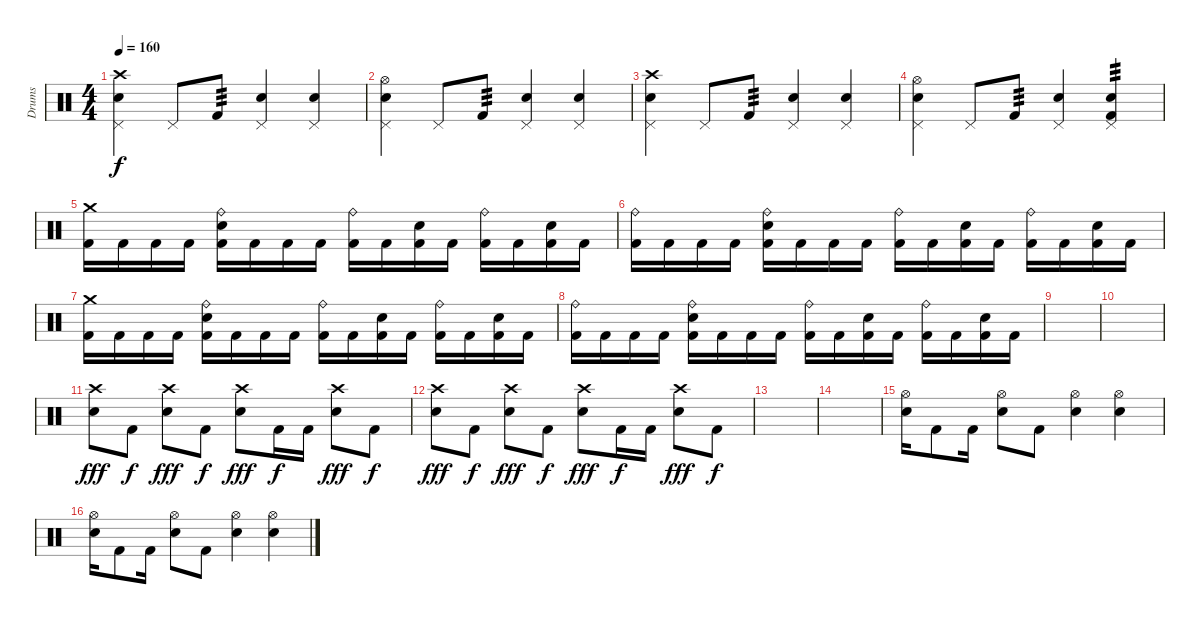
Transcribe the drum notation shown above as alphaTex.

\track ("Drums" "Drums") {instrument percussion}
\staff {score}
\articulation defaults
\ts (4 4)
\tempo 160
\clef neutral
\ks c
("Crash high (hit)" "Pedal Hi-Hat (hit)" "Snare (hit) 2").4{dy f} "Pedal Hi-Hat (hit)".8 "Kick (hit) 2".8{tp 3} ("Pedal Hi-Hat (hit)" "Snare (hit) 2").4 ("Pedal Hi-Hat (hit)" "Snare (hit) 2").4 |
("Hi-Hat (open)" "Pedal Hi-Hat (hit)" "Snare (hit) 2").4 "Pedal Hi-Hat (hit)".8 "Kick (hit) 2".8{tp 3} ("Pedal Hi-Hat (hit)" "Snare (hit) 2").4 ("Pedal Hi-Hat (hit)" "Snare (hit) 2").4 |
("Crash high (hit)" "Pedal Hi-Hat (hit)" "Snare (hit) 2").4 "Pedal Hi-Hat (hit)".8 "Kick (hit) 2".8{tp 3} ("Pedal Hi-Hat (hit)" "Snare (hit) 2").4 ("Pedal Hi-Hat (hit)" "Snare (hit) 2").4 |
("Hi-Hat (open)" "Pedal Hi-Hat (hit)" "Snare (hit) 2").4 "Pedal Hi-Hat (hit)".8 "Kick (hit) 2".8{tp 3} ("Pedal Hi-Hat (hit)" "Snare (hit) 2").4 ("Pedal Hi-Hat (hit)" "Kick (hit) 2" "Snare (hit) 2").4{tp 3} |
("Crash medium (hit)" "Kick (hit) 2").16 "Kick (hit) 2".16 "Kick (hit) 2".16 "Kick (hit) 2".16 ("Ride (bell)" "Snare (hit) 2" "Kick (hit) 2").16 "Kick (hit) 2".16 "Kick (hit) 2".16 "Kick (hit) 2".16 ("Ride (bell)" "Kick (hit) 2").16 "Kick (hit) 2".16 ("Snare (hit) 2" "Kick (hit) 2").16 "Kick (hit) 2".16 ("Ride (bell)" "Kick (hit) 2").16 "Kick (hit) 2".16 ("Snare (hit) 2" "Kick (hit) 2").16 "Kick (hit) 2".16 |
("Ride (bell)" "Kick (hit) 2").16 "Kick (hit) 2".16 "Kick (hit) 2".16 "Kick (hit) 2".16 ("Ride (bell)" "Snare (hit) 2" "Kick (hit) 2").16 "Kick (hit) 2".16 "Kick (hit) 2".16 "Kick (hit) 2".16 ("Ride (bell)" "Kick (hit) 2").16 "Kick (hit) 2".16 ("Snare (hit) 2" "Kick (hit) 2").16 "Kick (hit) 2".16 ("Ride (bell)" "Kick (hit) 2").16 "Kick (hit) 2".16 ("Snare (hit) 2" "Kick (hit) 2").16 "Kick (hit) 2".16 |
("Crash medium (hit)" "Kick (hit) 2").16 "Kick (hit) 2".16 "Kick (hit) 2".16 "Kick (hit) 2".16 ("Ride (bell)" "Snare (hit) 2" "Kick (hit) 2").16 "Kick (hit) 2".16 "Kick (hit) 2".16 "Kick (hit) 2".16 ("Ride (bell)" "Kick (hit) 2").16 "Kick (hit) 2".16 ("Snare (hit) 2" "Kick (hit) 2").16 "Kick (hit) 2".16 ("Ride (bell)" "Kick (hit) 2").16 "Kick (hit) 2".16 ("Snare (hit) 2" "Kick (hit) 2").16 "Kick (hit) 2".16 |
("Ride (bell)" "Kick (hit) 2").16 "Kick (hit) 2".16 "Kick (hit) 2".16 "Kick (hit) 2".16 ("Ride (bell)" "Snare (hit) 2" "Kick (hit) 2").16 "Kick (hit) 2".16 "Kick (hit) 2".16 "Kick (hit) 2".16 ("Ride (bell)" "Kick (hit) 2").16 "Kick (hit) 2".16 ("Snare (hit) 2" "Kick (hit) 2").16 "Kick (hit) 2".16 ("Ride (bell)" "Kick (hit) 2").16 "Kick (hit) 2".16 ("Snare (hit) 2" "Kick (hit) 2").16 "Kick (hit) 2".16 |
|
|
("Crash high (hit)" "Snare (hit) 2").8{dy fff} "Kick (hit) 2".8{dy f} ("Crash high (hit)" "Snare (hit) 2").8{dy fff} "Kick (hit) 2".8{dy f} ("Crash high (hit)" "Snare (hit) 2").8{dy fff} "Kick (hit) 2".16{dy f} "Kick (hit) 2".16 ("Crash high (hit)" "Snare (hit) 2").8{dy fff} "Kick (hit) 2".8{dy f} |
("Crash high (hit)" "Snare (hit) 2").8{dy fff} "Kick (hit) 2".8{dy f} ("Crash high (hit)" "Snare (hit) 2").8{dy fff} "Kick (hit) 2".8{dy f} ("Crash high (hit)" "Snare (hit) 2").8{dy fff} "Kick (hit) 2".16{dy f} "Kick (hit) 2".16 ("Crash high (hit)" "Snare (hit) 2").8{dy fff} "Kick (hit) 2".8{dy f} |
|
|
("Hi-Hat (open)" "Electric Snare (hit)").16 "Kick (hit) 2".8 "Kick (hit) 2".16 ("Hi-Hat (open)" "Electric Snare (hit)").8 "Kick (hit) 2".8 ("Hi-Hat (open)" "Electric Snare (hit)").4 ("Hi-Hat (open)" "Electric Snare (hit)").4 |
("Hi-Hat (open)" "Electric Snare (hit)").16 "Kick (hit) 2".8 "Kick (hit) 2".16 ("Hi-Hat (open)" "Electric Snare (hit)").8 "Kick (hit) 2".8 ("Hi-Hat (open)" "Electric Snare (hit)").4 ("Hi-Hat (open)" "Electric Snare (hit)").4
